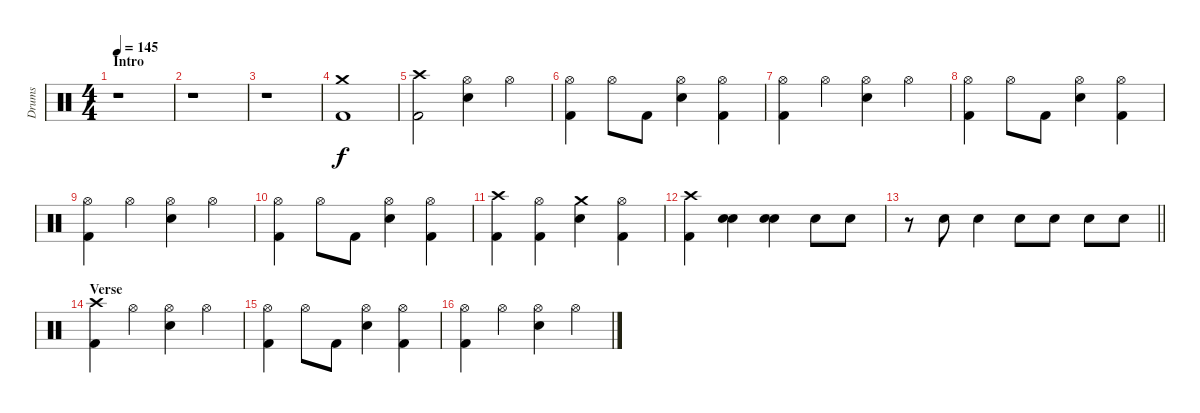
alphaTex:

\track ("Drums" "Drums") {instrument percussion}
\staff {score}
\articulation defaults
\ts (4 4)
\section ("" "Intro")
\tempo 145
\clef neutral
\ks c
r.1{dy f} |
r.1 |
r.1 |
("Crash medium (hit)" "Kick (hit) 2").1 |
("Crash high (hit)" "Kick (hit) 2").2 ("Hi-Hat (open)" "Snare (hit) 2").4 "Hi-Hat (open)".4 |
("Hi-Hat (open)" "Kick (hit) 2").4 "Hi-Hat (open)".8 "Kick (hit) 2".8 ("Hi-Hat (open)" "Snare (hit) 2").4 ("Hi-Hat (open)" "Kick (hit) 2").4 |
("Hi-Hat (open)" "Kick (hit) 2").4 "Hi-Hat (open)".4 ("Hi-Hat (open)" "Snare (hit) 2").4 "Hi-Hat (open)".4 |
("Hi-Hat (open)" "Kick (hit) 2").4 "Hi-Hat (open)".8 "Kick (hit) 2".8 ("Hi-Hat (open)" "Snare (hit) 2").4 ("Hi-Hat (open)" "Kick (hit) 2").4 |
("Hi-Hat (open)" "Kick (hit) 2").4 "Hi-Hat (open)".4 ("Hi-Hat (open)" "Snare (hit) 2").4 "Hi-Hat (open)".4 |
("Hi-Hat (open)" "Kick (hit) 2").4 "Hi-Hat (open)".8 "Kick (hit) 2".8 ("Hi-Hat (open)" "Snare (hit) 2").4 ("Hi-Hat (open)" "Kick (hit) 2").4 |
("Crash high (hit)" "Kick (hit) 2").4 ("Hi-Hat (open)" "Kick (hit) 2").4 ("Crash medium (hit)" "Snare (hit) 2").4 ("Hi-Hat (open)" "Kick (hit) 2").4 |
("Crash high (hit)" "Kick (hit) 2").4 ("Snare (hit) 2" "Snare (hit) 2").4{bd 120} ("Snare (hit) 2" "Snare (hit) 2").4{bd 120} "Snare (hit) 2".8 "Snare (hit) 2".8 |
\barLineRight lightlight
r.8 "Snare (hit) 2".8 "Snare (hit) 2".4 "Snare (hit) 2".8 "Snare (hit) 2".8 "Snare (hit) 2".8 "Snare (hit) 2".8 |
\section ("" "Verse")
("Crash high (hit)" "Kick (hit) 2").4 "Hi-Hat (open)".4 ("Hi-Hat (open)" "Snare (hit) 2").4 "Hi-Hat (open)".4 |
("Hi-Hat (open)" "Kick (hit) 2").4 "Hi-Hat (open)".8 "Kick (hit) 2".8 ("Hi-Hat (open)" "Snare (hit) 2").4 ("Hi-Hat (open)" "Kick (hit) 2").4 |
("Hi-Hat (open)" "Kick (hit) 2").4 "Hi-Hat (open)".4 ("Hi-Hat (open)" "Snare (hit) 2").4 "Hi-Hat (open)".4
